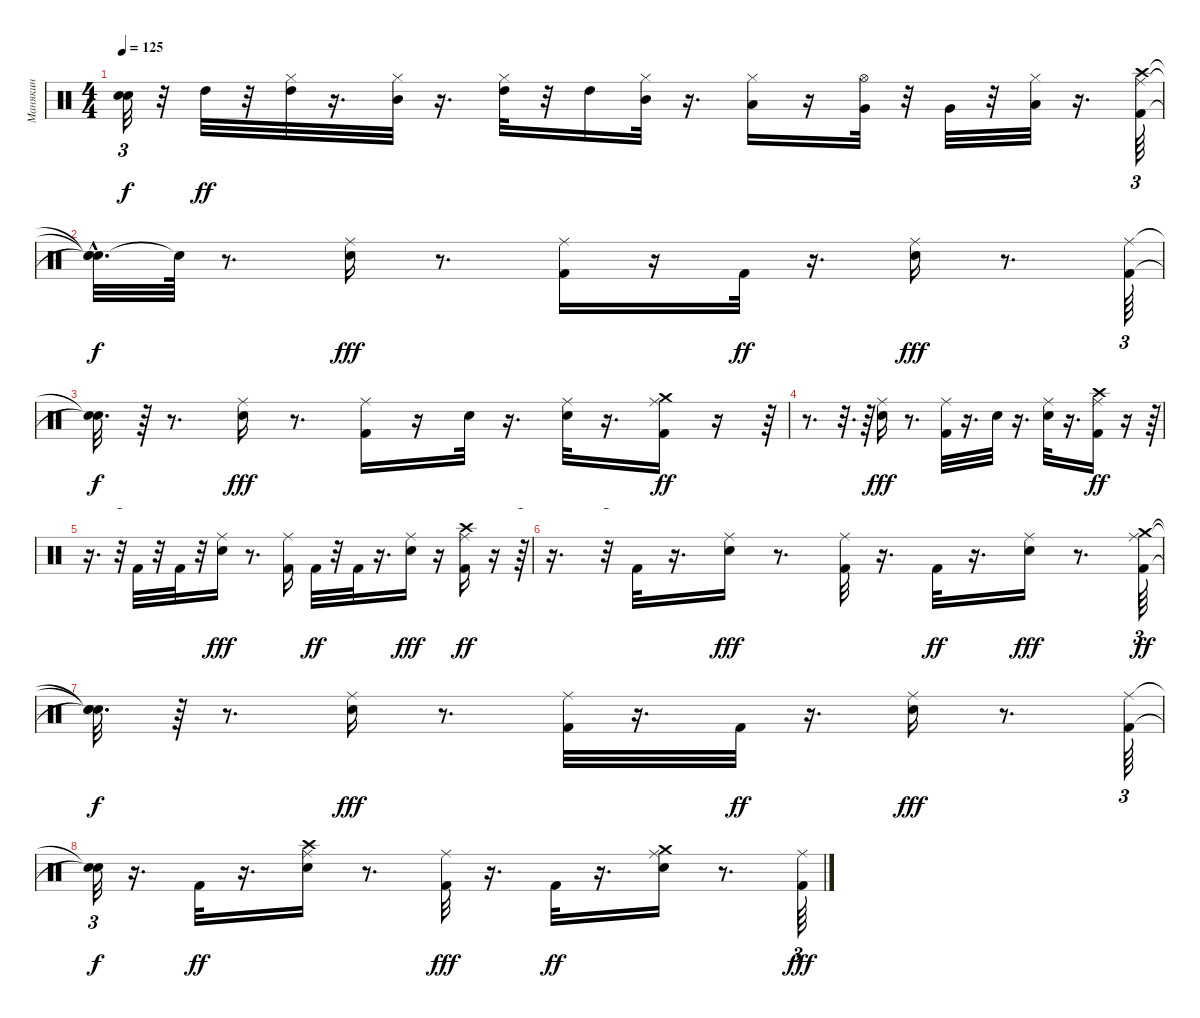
\track ("Манякин" "Манякин") {instrument percussion}
\staff {score}
\articulation defaults
\ts (4 4)
\tempo 125
\clef neutral
\ks c
("Snare (hit)"{t} "Snare (hit)"{t}).32{tu (3 2) dy f} r.32 "High Tom (hit)".32{dy ff} r.32 ("Hi-Hat (closed)" "High Tom (hit)").32 r.16{d} ("Hi-Hat (closed)" "Mid Tom (hit)").32 r.16{d} ("Hi-Hat (closed)" "High Tom (hit)").32 r.32 "High Tom (hit)".16 ("Hi-Hat (closed)" "Mid Tom (hit)").32 r.16{d} ("Hi-Hat (closed)" "Low Tom (hit)").16 r.16 ("Hi-Hat (open)" "Very Low Tom (hit)").32 r.32 "Very Low Tom (hit)".32 r.32 ("Hi-Hat (closed)" "Low Floor Tom (hit)").32 r.16{d} ("Kick (hit) 2" "Ride (middle)" "Crash high (hit)").64{tu (3 2)} |
("Snare (hit)"{t} "Snare (hit)"{hac t} "Snare (hit)"{t}).32{d dy f} "Snare (hit)"{t}.64 r.8{d} ("Snare (hit) 2" "Ride (middle)").16{dy fff} r.8{d} ("Kick (hit) 2" "Ride (middle)").16 r.16 "Kick (hit) 2".32{dy ff} r.16{d} ("Snare (hit) 2" "Ride (middle)").16{dy fff} r.8{d} ("Kick (hit) 2" "Ride (middle)").64{tu (3 2)} |
("Snare (hit)"{t} "Snare (hit)"{t}).32{d dy f} r.64 r.8{d} ("Snare (hit) 2" "Ride (middle)").16{dy fff} r.8{d} ("Kick (hit) 2" "Ride (middle)").16 r.16 "Snare (hit) 2".32 r.16{d} ("Snare (hit) 2" "Ride (middle)").32 r.16{d} ("Kick (hit) 2" "Ride (middle)" "Crash medium (hit)").16{dy ff} r.16 r.64{tu (3 2)} |
r.8{d} r.32{d} r.64 ("Snare (hit) 2" "Ride (middle)").16{dy fff} r.8{d} ("Kick (hit) 2" "Ride (middle)").32 r.16{d} "Snare (hit) 2".32 r.16{d} ("Snare (hit) 2" "Ride (middle)").32 r.16{d} ("Kick (hit) 2" "Ride (middle)" "Crash high (hit)").16{dy ff} r.16 r.64{tu (3 2)} |
r.16{d} r.32{tu (3 2)} "Kick (hit) 2".32 r.32 "Kick (hit) 2".32 r.32 ("Snare (hit) 2" "Ride (middle)").16{dy fff} r.8{d} ("Kick (hit) 2" "Ride (middle)").16 "Kick (hit) 2".32{dy ff} r.32 "Kick (hit) 2".32 r.16{d} ("Snare (hit) 2" "Ride (middle)").16{dy fff} r.16 ("Kick (hit) 2" "Ride (middle)" "Crash high (hit)").16{dy ff} r.16 r.64{tu (3 2)} |
r.16{d} r.32{tu (3 2)} "Kick (hit) 2".32 r.16{d} ("Snare (hit) 2" "Ride (middle)").16{dy fff} r.8{d} ("Kick (hit) 2" "Ride (middle)").32 r.16{d} "Kick (hit) 2".32{dy ff} r.16{d} ("Snare (hit) 2" "Ride (middle)").16{dy fff} r.8{d} ("Kick (hit) 2" "Ride (middle)" "Crash medium (hit)").64{tu (3 2) dy ff} |
("Snare (hit)"{t} "Snare (hit)"{t} "Snare (hit)"{t}).32{d dy f} r.64 r.8{d} ("Snare (hit) 2" "Ride (middle)").16{dy fff} r.8{d} ("Kick (hit) 2" "Ride (middle)").32 r.16{d} "Kick (hit) 2".32{dy ff} r.16{d} ("Snare (hit) 2" "Ride (middle)").16{dy fff} r.8{d} ("Kick (hit) 2" "Ride (middle)").64{tu (3 2)} |
("Snare (hit)"{t} "Snare (hit)"{t}).32{tu (3 2) dy f} r.16{d} "Kick (hit) 2".32{dy ff} r.16{d} ("Snare (hit) 2" "Ride (middle)" "Crash high (hit)").16 r.8{d} ("Kick (hit) 2" "Ride (middle)").32{dy fff} r.16{d} "Kick (hit) 2".32{dy ff} r.16{d} ("Snare (hit) 2" "Ride (middle)" "Crash medium (hit)").16 r.8{d} ("Kick (hit) 2" "Ride (middle)").64{tu (3 2) dy fff}
